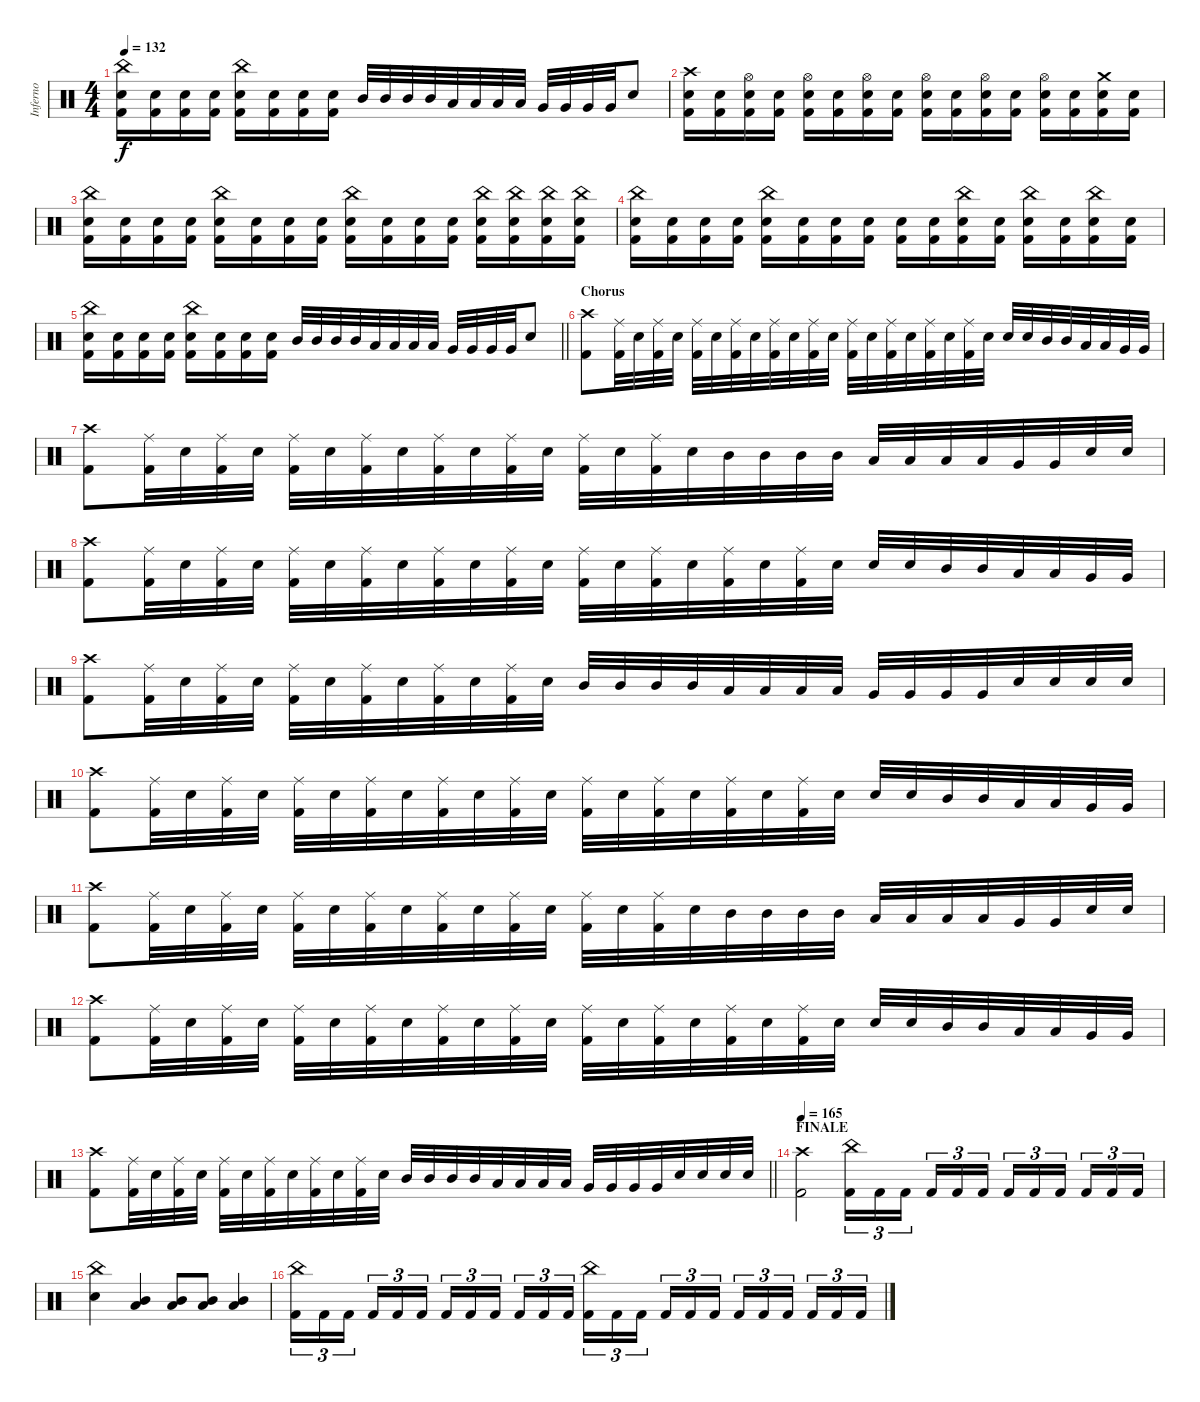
\track ("Inferno" "Inferno") {instrument percussion}
\staff {score}
\articulation defaults
\ts (4 4)
\tempo 132
\clef neutral
\ks c
("China (hit)" "Electric Snare (hit)" "Kick (hit) 2").16{dy f} ("Electric Snare (hit)" "Kick (hit) 2").16 ("Electric Snare (hit)" "Kick (hit) 2").16 ("Electric Snare (hit)" "Kick (hit) 2").16 ("China (hit)" "Electric Snare (hit)" "Kick (hit) 2").16 ("Electric Snare (hit)" "Kick (hit) 2").16 ("Electric Snare (hit)" "Kick (hit) 2").16 ("Electric Snare (hit)" "Kick (hit) 2").16 "Mid Tom (hit)".32 "Mid Tom (hit)".32 "Mid Tom (hit)".32 "Mid Tom (hit)".32 "Low Tom (hit)".32 "Low Tom (hit)".32 "Low Tom (hit)".32 "Low Tom (hit)".32 "Very Low Tom (hit)".32 "Very Low Tom (hit)".32 "Very Low Tom (hit)".32 "Very Low Tom (hit)".32 "Electric Snare (hit)".8 |
("Crash high (hit)" "Electric Snare (hit)" "Kick (hit) 2").16 ("Electric Snare (hit)" "Kick (hit) 2").16 ("Hi-Hat (open)" "Electric Snare (hit)" "Kick (hit) 2").16 ("Electric Snare (hit)" "Kick (hit) 2").16 ("Hi-Hat (open)" "Electric Snare (hit)" "Kick (hit) 2").16 ("Electric Snare (hit)" "Kick (hit) 2").16 ("Hi-Hat (open)" "Electric Snare (hit)" "Kick (hit) 2").16 ("Electric Snare (hit)" "Kick (hit) 2").16 ("Hi-Hat (open)" "Electric Snare (hit)" "Kick (hit) 2").16 ("Electric Snare (hit)" "Kick (hit) 2").16 ("Hi-Hat (open)" "Electric Snare (hit)" "Kick (hit) 2").16 ("Electric Snare (hit)" "Kick (hit) 2").16 ("Hi-Hat (open)" "Electric Snare (hit)" "Kick (hit) 2").16 ("Electric Snare (hit)" "Kick (hit) 2").16 ("Crash medium (hit)" "Electric Snare (hit)" "Kick (hit) 2").16 ("Electric Snare (hit)" "Kick (hit) 2").16 |
("China (hit)" "Electric Snare (hit)" "Kick (hit) 2").16 ("Electric Snare (hit)" "Kick (hit) 2").16 ("Electric Snare (hit)" "Kick (hit) 2").16 ("Electric Snare (hit)" "Kick (hit) 2").16 ("China (hit)" "Electric Snare (hit)" "Kick (hit) 2").16 ("Electric Snare (hit)" "Kick (hit) 2").16 ("Electric Snare (hit)" "Kick (hit) 2").16 ("Electric Snare (hit)" "Kick (hit) 2").16 ("China (hit)" "Electric Snare (hit)" "Kick (hit) 2").16 ("Electric Snare (hit)" "Kick (hit) 2").16 ("Electric Snare (hit)" "Kick (hit) 2").16 ("Electric Snare (hit)" "Kick (hit) 2").16 ("China (hit)" "Electric Snare (hit)" "Kick (hit) 2").16 ("China (hit)" "Electric Snare (hit)" "Kick (hit) 2").16 ("China (hit)" "Electric Snare (hit)" "Kick (hit) 2").16 ("China (hit)" "Electric Snare (hit)" "Kick (hit) 2").16 |
("China (hit)" "Electric Snare (hit)" "Kick (hit) 2").16 ("Electric Snare (hit)" "Kick (hit) 2").16 ("Electric Snare (hit)" "Kick (hit) 2").16 ("Electric Snare (hit)" "Kick (hit) 2").16 ("China (hit)" "Electric Snare (hit)" "Kick (hit) 2").16 ("Electric Snare (hit)" "Kick (hit) 2").16 ("Electric Snare (hit)" "Kick (hit) 2").16 ("Electric Snare (hit)" "Kick (hit) 2").16 ("Electric Snare (hit)" "Kick (hit) 2").16 ("Electric Snare (hit)" "Kick (hit) 2").16 ("China (hit)" "Electric Snare (hit)" "Kick (hit) 2").16 ("Electric Snare (hit)" "Kick (hit) 2").16 ("China (hit)" "Electric Snare (hit)" "Kick (hit) 2").16 ("Electric Snare (hit)" "Kick (hit) 2").16 ("China (hit)" "Electric Snare (hit)" "Kick (hit) 2").16 ("Electric Snare (hit)" "Kick (hit) 2").16 |
\barLineRight lightlight
("China (hit)" "Electric Snare (hit)" "Kick (hit) 2").16 ("Electric Snare (hit)" "Kick (hit) 2").16 ("Electric Snare (hit)" "Kick (hit) 2").16 ("Electric Snare (hit)" "Kick (hit) 2").16 ("China (hit)" "Electric Snare (hit)" "Kick (hit) 2").16 ("Electric Snare (hit)" "Kick (hit) 2").16 ("Electric Snare (hit)" "Kick (hit) 2").16 ("Electric Snare (hit)" "Kick (hit) 2").16 "Mid Tom (hit)".32 "Mid Tom (hit)".32 "Mid Tom (hit)".32 "Mid Tom (hit)".32 "Low Tom (hit)".32 "Low Tom (hit)".32 "Low Tom (hit)".32 "Low Tom (hit)".32 "Very Low Tom (hit)".32 "Very Low Tom (hit)".32 "Very Low Tom (hit)".32 "Very Low Tom (hit)".32 "Electric Snare (hit)".8 |
\section ("" "Chorus")
("Crash high (hit)" "Kick (hit) 2").8 ("Ride (middle)" "Kick (hit) 2").32 "Electric Snare (hit)".32 ("Ride (middle)" "Kick (hit) 2").32 "Electric Snare (hit)".32 ("Ride (middle)" "Kick (hit) 2").32 "Electric Snare (hit)".32 ("Ride (middle)" "Kick (hit) 2").32 "Electric Snare (hit)".32 ("Ride (middle)" "Kick (hit) 2").32 "Electric Snare (hit)".32 ("Ride (middle)" "Kick (hit) 2").32 "Electric Snare (hit)".32 ("Ride (middle)" "Kick (hit) 2").32 "Electric Snare (hit)".32 ("Ride (middle)" "Kick (hit) 2").32 "Electric Snare (hit)".32 ("Ride (middle)" "Kick (hit) 2").32 "Electric Snare (hit)".32 ("Ride (middle)" "Kick (hit) 2").32 "Electric Snare (hit)".32 "Electric Snare (hit)".32 "Electric Snare (hit)".32 "Mid Tom (hit)".32 "Mid Tom (hit)".32 "Low Tom (hit)".32 "Low Tom (hit)".32 "Very Low Tom (hit)".32 "Very Low Tom (hit)".32 |
("Crash high (hit)" "Kick (hit) 2").8 ("Ride (middle)" "Kick (hit) 2").32 "Electric Snare (hit)".32 ("Ride (middle)" "Kick (hit) 2").32 "Electric Snare (hit)".32 ("Ride (middle)" "Kick (hit) 2").32 "Electric Snare (hit)".32 ("Ride (middle)" "Kick (hit) 2").32 "Electric Snare (hit)".32 ("Ride (middle)" "Kick (hit) 2").32 "Electric Snare (hit)".32 ("Ride (middle)" "Kick (hit) 2").32 "Electric Snare (hit)".32 ("Ride (middle)" "Kick (hit) 2").32 "Electric Snare (hit)".32 ("Ride (middle)" "Kick (hit) 2").32 "Electric Snare (hit)".32 "Mid Tom (hit)".32 "Mid Tom (hit)".32 "Mid Tom (hit)".32 "Mid Tom (hit)".32 "Low Tom (hit)".32 "Low Tom (hit)".32 "Low Tom (hit)".32 "Low Tom (hit)".32 "Very Low Tom (hit)".32 "Very Low Tom (hit)".32 "Electric Snare (hit)".32 "Electric Snare (hit)".32 |
("Crash high (hit)" "Kick (hit) 2").8 ("Ride (middle)" "Kick (hit) 2").32 "Electric Snare (hit)".32 ("Ride (middle)" "Kick (hit) 2").32 "Electric Snare (hit)".32 ("Ride (middle)" "Kick (hit) 2").32 "Electric Snare (hit)".32 ("Ride (middle)" "Kick (hit) 2").32 "Electric Snare (hit)".32 ("Ride (middle)" "Kick (hit) 2").32 "Electric Snare (hit)".32 ("Ride (middle)" "Kick (hit) 2").32 "Electric Snare (hit)".32 ("Ride (middle)" "Kick (hit) 2").32 "Electric Snare (hit)".32 ("Ride (middle)" "Kick (hit) 2").32 "Electric Snare (hit)".32 ("Ride (middle)" "Kick (hit) 2").32 "Electric Snare (hit)".32 ("Ride (middle)" "Kick (hit) 2").32 "Electric Snare (hit)".32 "Electric Snare (hit)".32 "Electric Snare (hit)".32 "Mid Tom (hit)".32 "Mid Tom (hit)".32 "Low Tom (hit)".32 "Low Tom (hit)".32 "Very Low Tom (hit)".32 "Very Low Tom (hit)".32 |
("Crash high (hit)" "Kick (hit) 2").8 ("Ride (middle)" "Kick (hit) 2").32 "Electric Snare (hit)".32 ("Ride (middle)" "Kick (hit) 2").32 "Electric Snare (hit)".32 ("Ride (middle)" "Kick (hit) 2").32 "Electric Snare (hit)".32 ("Ride (middle)" "Kick (hit) 2").32 "Electric Snare (hit)".32 ("Ride (middle)" "Kick (hit) 2").32 "Electric Snare (hit)".32 ("Ride (middle)" "Kick (hit) 2").32 "Electric Snare (hit)".32 "Mid Tom (hit)".32 "Mid Tom (hit)".32 "Mid Tom (hit)".32 "Mid Tom (hit)".32 "Low Tom (hit)".32 "Low Tom (hit)".32 "Low Tom (hit)".32 "Low Tom (hit)".32 "Very Low Tom (hit)".32 "Very Low Tom (hit)".32 "Very Low Tom (hit)".32 "Very Low Tom (hit)".32 "Electric Snare (hit)".32 "Electric Snare (hit)".32 "Electric Snare (hit)".32 "Electric Snare (hit)".32 |
("Crash high (hit)" "Kick (hit) 2").8 ("Ride (middle)" "Kick (hit) 2").32 "Electric Snare (hit)".32 ("Ride (middle)" "Kick (hit) 2").32 "Electric Snare (hit)".32 ("Ride (middle)" "Kick (hit) 2").32 "Electric Snare (hit)".32 ("Ride (middle)" "Kick (hit) 2").32 "Electric Snare (hit)".32 ("Ride (middle)" "Kick (hit) 2").32 "Electric Snare (hit)".32 ("Ride (middle)" "Kick (hit) 2").32 "Electric Snare (hit)".32 ("Ride (middle)" "Kick (hit) 2").32 "Electric Snare (hit)".32 ("Ride (middle)" "Kick (hit) 2").32 "Electric Snare (hit)".32 ("Ride (middle)" "Kick (hit) 2").32 "Electric Snare (hit)".32 ("Ride (middle)" "Kick (hit) 2").32 "Electric Snare (hit)".32 "Electric Snare (hit)".32 "Electric Snare (hit)".32 "Mid Tom (hit)".32 "Mid Tom (hit)".32 "Low Tom (hit)".32 "Low Tom (hit)".32 "Very Low Tom (hit)".32 "Very Low Tom (hit)".32 |
("Crash high (hit)" "Kick (hit) 2").8 ("Ride (middle)" "Kick (hit) 2").32 "Electric Snare (hit)".32 ("Ride (middle)" "Kick (hit) 2").32 "Electric Snare (hit)".32 ("Ride (middle)" "Kick (hit) 2").32 "Electric Snare (hit)".32 ("Ride (middle)" "Kick (hit) 2").32 "Electric Snare (hit)".32 ("Ride (middle)" "Kick (hit) 2").32 "Electric Snare (hit)".32 ("Ride (middle)" "Kick (hit) 2").32 "Electric Snare (hit)".32 ("Ride (middle)" "Kick (hit) 2").32 "Electric Snare (hit)".32 ("Ride (middle)" "Kick (hit) 2").32 "Electric Snare (hit)".32 "Mid Tom (hit)".32 "Mid Tom (hit)".32 "Mid Tom (hit)".32 "Mid Tom (hit)".32 "Low Tom (hit)".32 "Low Tom (hit)".32 "Low Tom (hit)".32 "Low Tom (hit)".32 "Very Low Tom (hit)".32 "Very Low Tom (hit)".32 "Electric Snare (hit)".32 "Electric Snare (hit)".32 |
("Crash high (hit)" "Kick (hit) 2").8 ("Ride (middle)" "Kick (hit) 2").32 "Electric Snare (hit)".32 ("Ride (middle)" "Kick (hit) 2").32 "Electric Snare (hit)".32 ("Ride (middle)" "Kick (hit) 2").32 "Electric Snare (hit)".32 ("Ride (middle)" "Kick (hit) 2").32 "Electric Snare (hit)".32 ("Ride (middle)" "Kick (hit) 2").32 "Electric Snare (hit)".32 ("Ride (middle)" "Kick (hit) 2").32 "Electric Snare (hit)".32 ("Ride (middle)" "Kick (hit) 2").32 "Electric Snare (hit)".32 ("Ride (middle)" "Kick (hit) 2").32 "Electric Snare (hit)".32 ("Ride (middle)" "Kick (hit) 2").32 "Electric Snare (hit)".32 ("Ride (middle)" "Kick (hit) 2").32 "Electric Snare (hit)".32 "Electric Snare (hit)".32 "Electric Snare (hit)".32 "Mid Tom (hit)".32 "Mid Tom (hit)".32 "Low Tom (hit)".32 "Low Tom (hit)".32 "Very Low Tom (hit)".32 "Very Low Tom (hit)".32 |
\barLineRight lightlight
("Crash high (hit)" "Kick (hit) 2").8 ("Ride (middle)" "Kick (hit) 2").32 "Electric Snare (hit)".32 ("Ride (middle)" "Kick (hit) 2").32 "Electric Snare (hit)".32 ("Ride (middle)" "Kick (hit) 2").32 "Electric Snare (hit)".32 ("Ride (middle)" "Kick (hit) 2").32 "Electric Snare (hit)".32 ("Ride (middle)" "Kick (hit) 2").32 "Electric Snare (hit)".32 ("Ride (middle)" "Kick (hit) 2").32 "Electric Snare (hit)".32 "Mid Tom (hit)".32 "Mid Tom (hit)".32 "Mid Tom (hit)".32 "Mid Tom (hit)".32 "Low Tom (hit)".32 "Low Tom (hit)".32 "Low Tom (hit)".32 "Low Tom (hit)".32 "Very Low Tom (hit)".32 "Very Low Tom (hit)".32 "Very Low Tom (hit)".32 "Very Low Tom (hit)".32 "Electric Snare (hit)".32 "Electric Snare (hit)".32 "Electric Snare (hit)".32 "Electric Snare (hit)".32 |
\section ("" "FINALE")
\tempo 165
("Crash high (hit)" "Kick (hit) 2").2 ("China (hit)" "Kick (hit) 2").16{tu (3 2)} "Kick (hit) 2".16{tu (3 2)} "Kick (hit) 2".16{tu (3 2) beam splitsecondary} "Kick (hit) 2".16{tu (3 2)} "Kick (hit) 2".16{tu (3 2)} "Kick (hit) 2".16{tu (3 2)} "Kick (hit) 2".16{tu (3 2)} "Kick (hit) 2".16{tu (3 2)} "Kick (hit) 2".16{tu (3 2) beam splitsecondary} "Kick (hit) 2".16{tu (3 2)} "Kick (hit) 2".16{tu (3 2)} "Kick (hit) 2".16{tu (3 2)} |
("China (hit)" "Electric Snare (hit)").4 ("Mid Tom (hit)" "Low Tom (hit)").4 ("Mid Tom (hit)" "Low Tom (hit)").8 ("Mid Tom (hit)" "Low Tom (hit)").8 ("Mid Tom (hit)" "Low Tom (hit)").4 |
("China (hit)" "Kick (hit) 2").16{tu (3 2)} "Kick (hit) 2".16{tu (3 2)} "Kick (hit) 2".16{tu (3 2) beam splitsecondary} "Kick (hit) 2".16{tu (3 2)} "Kick (hit) 2".16{tu (3 2)} "Kick (hit) 2".16{tu (3 2)} "Kick (hit) 2".16{tu (3 2)} "Kick (hit) 2".16{tu (3 2)} "Kick (hit) 2".16{tu (3 2) beam splitsecondary} "Kick (hit) 2".16{tu (3 2)} "Kick (hit) 2".16{tu (3 2)} "Kick (hit) 2".16{tu (3 2)} ("China (hit)" "Kick (hit) 2").16{tu (3 2)} "Kick (hit) 2".16{tu (3 2)} "Kick (hit) 2".16{tu (3 2) beam splitsecondary} "Kick (hit) 2".16{tu (3 2)} "Kick (hit) 2".16{tu (3 2)} "Kick (hit) 2".16{tu (3 2)} "Kick (hit) 2".16{tu (3 2)} "Kick (hit) 2".16{tu (3 2)} "Kick (hit) 2".16{tu (3 2) beam splitsecondary} "Kick (hit) 2".16{tu (3 2)} "Kick (hit) 2".16{tu (3 2)} "Kick (hit) 2".16{tu (3 2)}
